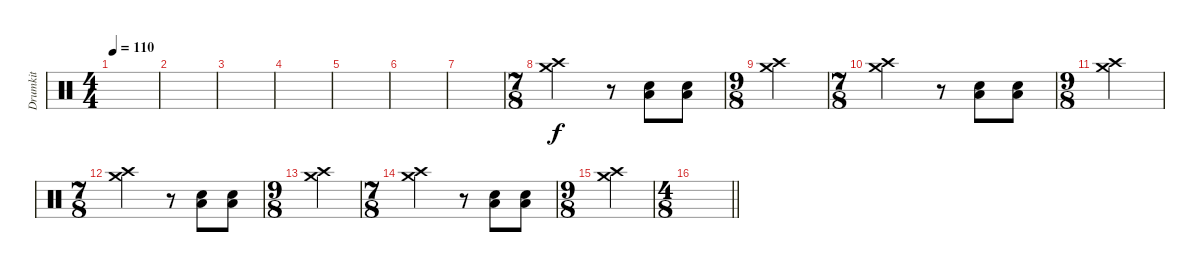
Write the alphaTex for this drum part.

\track ("Drumkit" "Drumkit") {instrument percussion}
\staff {score}
\articulation defaults
\ts (4 4)
\tempo 110
\clef neutral
\ks c
|
|
|
|
|
|
|
\ts (7 8)
("Crash medium (hit)" "Crash high (hit)").2 r.8{beam merge} ("Low Floor Tom (hit)" "Electric Snare (hit)").8{beam merge} ("Low Floor Tom (hit)" "Electric Snare (hit)").8 |
\ts (9 8)
("Crash medium (hit)" "Crash high (hit)").4 |
\ts (7 8)
("Crash medium (hit)" "Crash high (hit)").2 r.8 ("Low Floor Tom (hit)" "Electric Snare (hit)").8 ("Low Floor Tom (hit)" "Electric Snare (hit)").8 |
\ts (9 8)
("Crash medium (hit)" "Crash high (hit)").4 |
\ts (7 8)
("Crash medium (hit)" "Crash high (hit)").2 r.8{beam merge} ("Low Floor Tom (hit)" "Electric Snare (hit)").8{beam merge} ("Low Floor Tom (hit)" "Electric Snare (hit)").8 |
\ts (9 8)
("Crash medium (hit)" "Crash high (hit)").4 |
\ts (7 8)
("Crash medium (hit)" "Crash high (hit)").2 r.8 ("Low Floor Tom (hit)" "Electric Snare (hit)").8 ("Low Floor Tom (hit)" "Electric Snare (hit)").8 |
\ts (9 8)
("Crash medium (hit)" "Crash high (hit)").4 |
\ts (4 8)
\barLineRight lightlight
